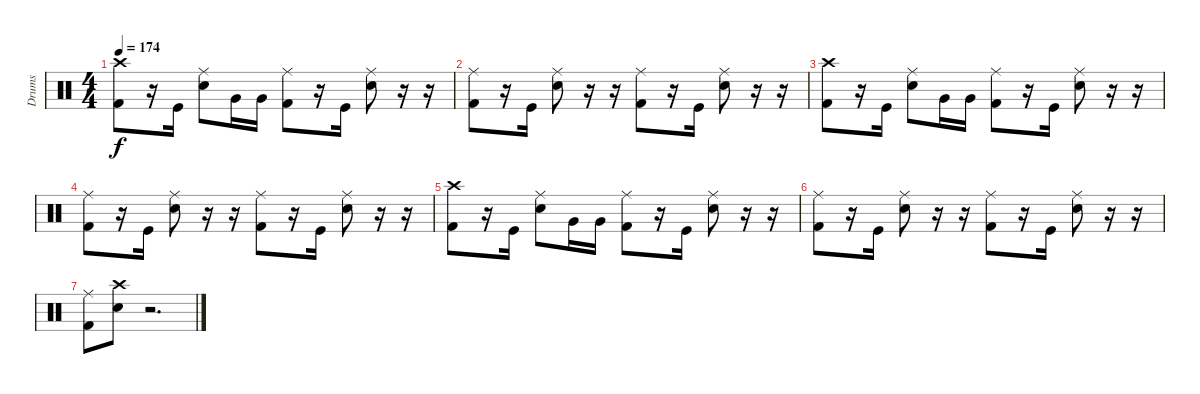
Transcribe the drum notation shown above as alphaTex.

\track ("Drums" "Drums") {instrument percussion}
\staff {score}
\articulation defaults
\ts (4 4)
\tempo 174
\clef neutral
\ks c
("Crash high (hit)" "Kick (hit) 2").8{dy f} r.16 "Kick (hit)".16 ("Ride (middle)" "Snare (hit) 2").8 "Very Low Tom (hit)".16 "Very Low Tom (hit)".16 ("Ride (middle)" "Kick (hit) 2").8 r.16 "Kick (hit)".16 ("Ride (middle)" "Snare (hit) 2").8 r.16 r.16 |
("Ride (middle)" "Kick (hit) 2").8 r.16 "Kick (hit)".16 ("Ride (middle)" "Snare (hit) 2").8 r.16 r.16 ("Ride (middle)" "Kick (hit) 2").8 r.16 "Kick (hit)".16 ("Ride (middle)" "Snare (hit) 2").8 r.16 r.16 |
("Crash high (hit)" "Kick (hit) 2").8 r.16 "Kick (hit)".16 ("Ride (middle)" "Snare (hit) 2").8 "Very Low Tom (hit)".16 "Very Low Tom (hit)".16 ("Ride (middle)" "Kick (hit) 2").8 r.16 "Kick (hit)".16 ("Ride (middle)" "Snare (hit) 2").8 r.16 r.16 |
("Ride (middle)" "Kick (hit) 2").8 r.16 "Kick (hit)".16 ("Ride (middle)" "Snare (hit) 2").8 r.16 r.16 ("Ride (middle)" "Kick (hit) 2").8 r.16 "Kick (hit)".16 ("Ride (middle)" "Snare (hit) 2").8 r.16 r.16 |
("Crash high (hit)" "Kick (hit) 2").8 r.16 "Kick (hit)".16 ("Ride (middle)" "Snare (hit) 2").8 "Very Low Tom (hit)".16 "Very Low Tom (hit)".16 ("Ride (middle)" "Kick (hit) 2").8 r.16 "Kick (hit)".16 ("Ride (middle)" "Snare (hit) 2").8 r.16 r.16 |
("Ride (middle)" "Kick (hit) 2").8 r.16 "Kick (hit)".16 ("Ride (middle)" "Snare (hit) 2").8 r.16 r.16 ("Ride (middle)" "Kick (hit) 2").8 r.16 "Kick (hit)".16 ("Ride (middle)" "Snare (hit) 2").8 r.16 r.16 |
("Ride (middle)" "Kick (hit) 2").8 ("Crash high (hit)" "Snare (hit) 2").8 r.2{d}
